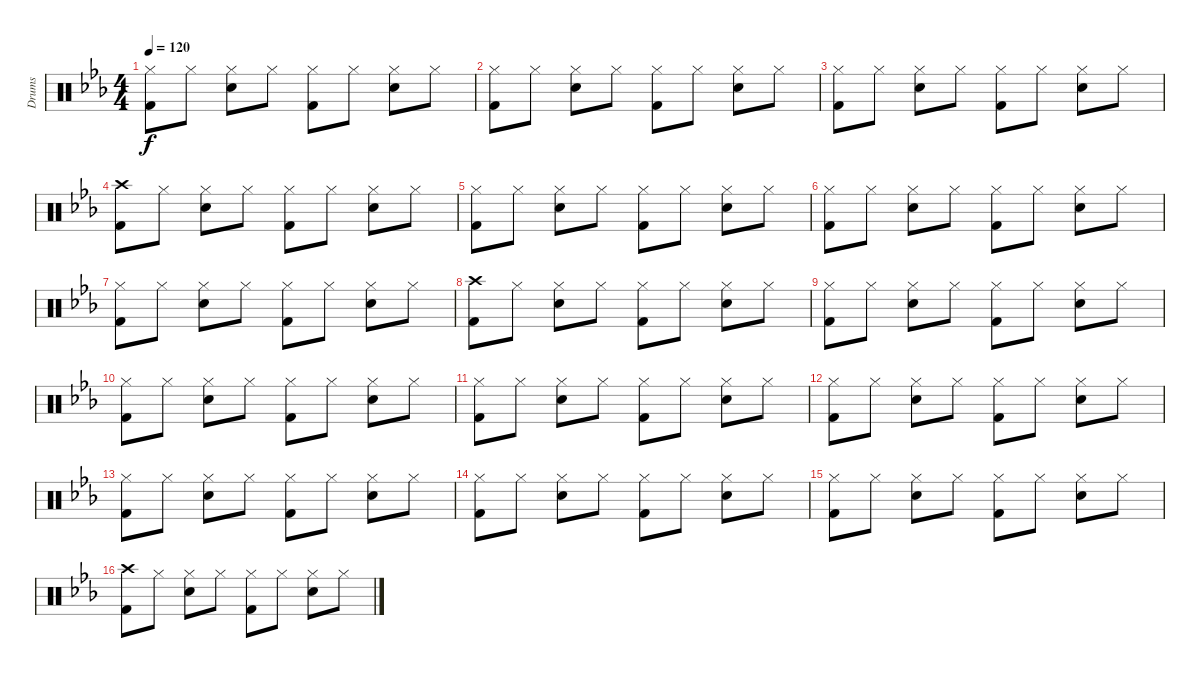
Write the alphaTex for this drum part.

\track ("Drums" "Drums") {instrument percussion}
\staff {score}
\articulation defaults
\ts (4 4)
\tempo 120
\clef neutral
\ks eb
("Hi-Hat (closed)" "Kick (hit) 2").8{dy f} "Hi-Hat (closed)".8 ("Hi-Hat (closed)" "Snare (hit) 2").8 "Hi-Hat (closed)".8 ("Hi-Hat (closed)" "Kick (hit) 2").8 "Hi-Hat (closed)".8 ("Hi-Hat (closed)" "Snare (hit) 2").8 "Hi-Hat (closed)".8 |
("Hi-Hat (closed)" "Kick (hit) 2").8 "Hi-Hat (closed)".8 ("Hi-Hat (closed)" "Snare (hit) 2").8 "Hi-Hat (closed)".8 ("Hi-Hat (closed)" "Kick (hit) 2").8 "Hi-Hat (closed)".8 ("Hi-Hat (closed)" "Snare (hit) 2").8 "Hi-Hat (closed)".8 |
("Hi-Hat (closed)" "Kick (hit) 2").8 "Hi-Hat (closed)".8 ("Hi-Hat (closed)" "Snare (hit) 2").8 "Hi-Hat (closed)".8 ("Hi-Hat (closed)" "Kick (hit) 2").8 "Hi-Hat (closed)".8 ("Hi-Hat (closed)" "Snare (hit) 2").8 "Hi-Hat (closed)".8 |
("Crash high (hit)" "Kick (hit) 2").8 "Hi-Hat (closed)".8 ("Hi-Hat (closed)" "Snare (hit) 2").8 "Hi-Hat (closed)".8 ("Hi-Hat (closed)" "Kick (hit) 2").8 "Hi-Hat (closed)".8 ("Hi-Hat (closed)" "Snare (hit) 2").8 "Hi-Hat (closed)".8 |
("Hi-Hat (closed)" "Kick (hit) 2").8 "Hi-Hat (closed)".8 ("Hi-Hat (closed)" "Snare (hit) 2").8 "Hi-Hat (closed)".8 ("Hi-Hat (closed)" "Kick (hit) 2").8 "Hi-Hat (closed)".8 ("Hi-Hat (closed)" "Snare (hit) 2").8 "Hi-Hat (closed)".8 |
("Hi-Hat (closed)" "Kick (hit) 2").8 "Hi-Hat (closed)".8 ("Hi-Hat (closed)" "Snare (hit) 2").8 "Hi-Hat (closed)".8 ("Hi-Hat (closed)" "Kick (hit) 2").8 "Hi-Hat (closed)".8 ("Hi-Hat (closed)" "Snare (hit) 2").8 "Hi-Hat (closed)".8 |
("Hi-Hat (closed)" "Kick (hit) 2").8 "Hi-Hat (closed)".8 ("Hi-Hat (closed)" "Snare (hit) 2").8 "Hi-Hat (closed)".8 ("Hi-Hat (closed)" "Kick (hit) 2").8 "Hi-Hat (closed)".8 ("Hi-Hat (closed)" "Snare (hit) 2").8 "Hi-Hat (closed)".8 |
("Crash high (hit)" "Kick (hit) 2").8 "Hi-Hat (closed)".8 ("Hi-Hat (closed)" "Snare (hit) 2").8 "Hi-Hat (closed)".8 ("Hi-Hat (closed)" "Kick (hit) 2").8 "Hi-Hat (closed)".8 ("Hi-Hat (closed)" "Snare (hit) 2").8 "Hi-Hat (closed)".8 |
("Hi-Hat (closed)" "Kick (hit) 2").8 "Hi-Hat (closed)".8 ("Hi-Hat (closed)" "Snare (hit) 2").8 "Hi-Hat (closed)".8 ("Hi-Hat (closed)" "Kick (hit) 2").8 "Hi-Hat (closed)".8 ("Hi-Hat (closed)" "Snare (hit) 2").8 "Hi-Hat (closed)".8 |
("Hi-Hat (closed)" "Kick (hit) 2").8 "Hi-Hat (closed)".8 ("Hi-Hat (closed)" "Snare (hit) 2").8 "Hi-Hat (closed)".8 ("Hi-Hat (closed)" "Kick (hit) 2").8 "Hi-Hat (closed)".8 ("Hi-Hat (closed)" "Snare (hit) 2").8 "Hi-Hat (closed)".8 |
("Hi-Hat (closed)" "Kick (hit) 2").8 "Hi-Hat (closed)".8 ("Hi-Hat (closed)" "Snare (hit) 2").8 "Hi-Hat (closed)".8 ("Hi-Hat (closed)" "Kick (hit) 2").8 "Hi-Hat (closed)".8 ("Hi-Hat (closed)" "Snare (hit) 2").8 "Hi-Hat (closed)".8 |
("Hi-Hat (closed)" "Kick (hit) 2").8 "Hi-Hat (closed)".8 ("Hi-Hat (closed)" "Snare (hit) 2").8 "Hi-Hat (closed)".8 ("Hi-Hat (closed)" "Kick (hit) 2").8 "Hi-Hat (closed)".8 ("Hi-Hat (closed)" "Snare (hit) 2").8 "Hi-Hat (closed)".8 |
("Hi-Hat (closed)" "Kick (hit) 2").8 "Hi-Hat (closed)".8 ("Hi-Hat (closed)" "Snare (hit) 2").8 "Hi-Hat (closed)".8 ("Hi-Hat (closed)" "Kick (hit) 2").8 "Hi-Hat (closed)".8 ("Hi-Hat (closed)" "Snare (hit) 2").8 "Hi-Hat (closed)".8 |
("Hi-Hat (closed)" "Kick (hit) 2").8 "Hi-Hat (closed)".8 ("Hi-Hat (closed)" "Snare (hit) 2").8 "Hi-Hat (closed)".8 ("Hi-Hat (closed)" "Kick (hit) 2").8 "Hi-Hat (closed)".8 ("Hi-Hat (closed)" "Snare (hit) 2").8 "Hi-Hat (closed)".8 |
("Hi-Hat (closed)" "Kick (hit) 2").8 "Hi-Hat (closed)".8 ("Hi-Hat (closed)" "Snare (hit) 2").8 "Hi-Hat (closed)".8 ("Hi-Hat (closed)" "Kick (hit) 2").8 "Hi-Hat (closed)".8 ("Hi-Hat (closed)" "Snare (hit) 2").8 "Hi-Hat (closed)".8 |
("Crash high (hit)" "Kick (hit) 2").8 "Hi-Hat (closed)".8 ("Hi-Hat (closed)" "Snare (hit) 2").8 "Hi-Hat (closed)".8 ("Hi-Hat (closed)" "Kick (hit) 2").8 "Hi-Hat (closed)".8 ("Hi-Hat (closed)" "Snare (hit) 2").8 "Hi-Hat (closed)".8
